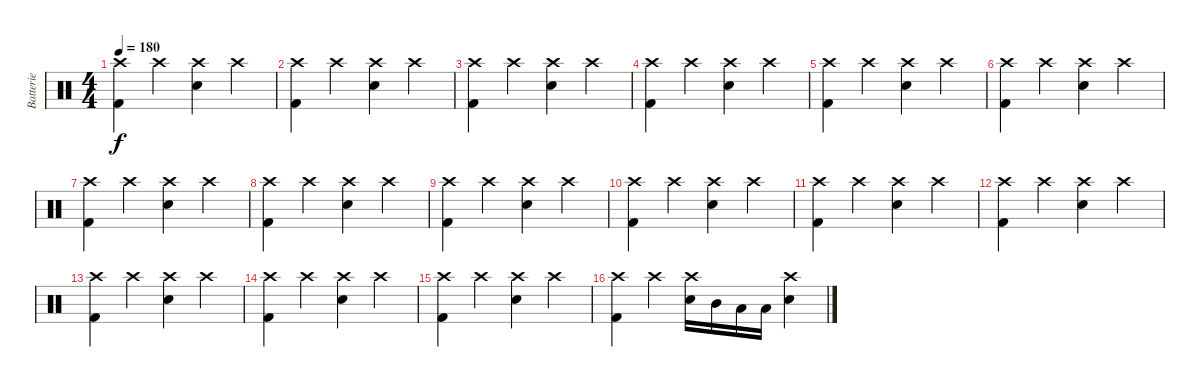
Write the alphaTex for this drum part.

\track ("Batterie" "Batterie") {instrument percussion}
\staff {score}
\articulation defaults
\ts (4 4)
\tempo 180
\clef neutral
\ks c
("Crash high (hit)" "Kick (hit) 2").4{dy f} "Crash high (hit)".4 ("Crash high (hit)" "Electric Snare (hit)").4 "Crash high (hit)".4 |
("Crash high (hit)" "Kick (hit) 2").4 "Crash high (hit)".4 ("Crash high (hit)" "Electric Snare (hit)").4 "Crash high (hit)".4 |
("Crash high (hit)" "Kick (hit) 2").4 "Crash high (hit)".4 ("Crash high (hit)" "Electric Snare (hit)").4 "Crash high (hit)".4 |
("Crash high (hit)" "Kick (hit) 2").4 "Crash high (hit)".4 ("Crash high (hit)" "Electric Snare (hit)").4 "Crash high (hit)".4 |
("Crash high (hit)" "Kick (hit) 2").4 "Crash high (hit)".4 ("Crash high (hit)" "Electric Snare (hit)").4 "Crash high (hit)".4 |
("Crash high (hit)" "Kick (hit) 2").4 "Crash high (hit)".4 ("Crash high (hit)" "Electric Snare (hit)").4 "Crash high (hit)".4 |
("Crash high (hit)" "Kick (hit) 2").4 "Crash high (hit)".4 ("Crash high (hit)" "Electric Snare (hit)").4 "Crash high (hit)".4 |
("Crash high (hit)" "Kick (hit) 2").4 "Crash high (hit)".4 ("Crash high (hit)" "Electric Snare (hit)").4 "Crash high (hit)".4 |
("Crash high (hit)" "Kick (hit) 2").4 "Crash high (hit)".4 ("Crash high (hit)" "Electric Snare (hit)").4 "Crash high (hit)".4 |
("Crash high (hit)" "Kick (hit) 2").4 "Crash high (hit)".4 ("Crash high (hit)" "Electric Snare (hit)").4 "Crash high (hit)".4 |
("Crash high (hit)" "Kick (hit) 2").4 "Crash high (hit)".4 ("Crash high (hit)" "Electric Snare (hit)").4 "Crash high (hit)".4 |
("Crash high (hit)" "Kick (hit) 2").4 "Crash high (hit)".4 ("Crash high (hit)" "Electric Snare (hit)").4 "Crash high (hit)".4 |
("Crash high (hit)" "Kick (hit) 2").4 "Crash high (hit)".4 ("Crash high (hit)" "Electric Snare (hit)").4 "Crash high (hit)".4 |
("Crash high (hit)" "Kick (hit) 2").4 "Crash high (hit)".4 ("Crash high (hit)" "Electric Snare (hit)").4 "Crash high (hit)".4 |
("Crash high (hit)" "Kick (hit) 2").4 "Crash high (hit)".4 ("Crash high (hit)" "Electric Snare (hit)").4 "Crash high (hit)".4 |
("Crash high (hit)" "Kick (hit) 2").4 "Crash high (hit)".4 ("Crash high (hit)" "Electric Snare (hit)").16 "Mid Tom (hit)".16 "Low Tom (hit)".16 "Low Floor Tom (hit)".16 ("Crash high (hit)" "Electric Snare (hit)").4
